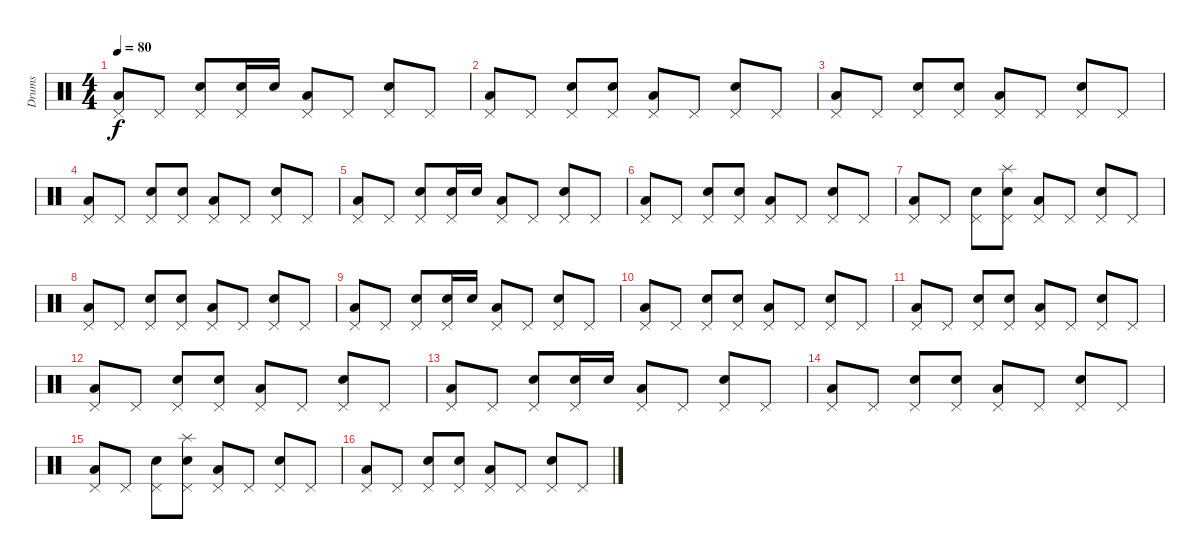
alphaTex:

\track ("Drums" "Drums") {instrument percussion}
\staff {score}
\articulation defaults
\ts (4 4)
\tempo 80
\clef neutral
\ks c
("Low Floor Tom (hit)" "Pedal Hi-Hat (hit)").8{dy f} "Pedal Hi-Hat (hit)".8 ("Electric Snare (hit)" "Pedal Hi-Hat (hit)").8 ("Electric Snare (hit)" "Pedal Hi-Hat (hit)").16 "Electric Snare (hit)".16 ("Low Floor Tom (hit)" "Pedal Hi-Hat (hit)").8 "Pedal Hi-Hat (hit)".8 ("Electric Snare (hit)" "Pedal Hi-Hat (hit)").8 "Pedal Hi-Hat (hit)".8 |
("Low Floor Tom (hit)" "Pedal Hi-Hat (hit)").8 "Pedal Hi-Hat (hit)".8 ("Electric Snare (hit)" "Pedal Hi-Hat (hit)").8 ("Electric Snare (hit)" "Pedal Hi-Hat (hit)").8 ("Low Floor Tom (hit)" "Pedal Hi-Hat (hit)").8 "Pedal Hi-Hat (hit)".8 ("Electric Snare (hit)" "Pedal Hi-Hat (hit)").8 "Pedal Hi-Hat (hit)".8 |
("Low Floor Tom (hit)" "Pedal Hi-Hat (hit)").8 "Pedal Hi-Hat (hit)".8 ("Electric Snare (hit)" "Pedal Hi-Hat (hit)").8 ("Electric Snare (hit)" "Pedal Hi-Hat (hit)").8 ("Low Floor Tom (hit)" "Pedal Hi-Hat (hit)").8 "Pedal Hi-Hat (hit)".8 ("Electric Snare (hit)" "Pedal Hi-Hat (hit)").8 "Pedal Hi-Hat (hit)".8 |
("Low Floor Tom (hit)" "Pedal Hi-Hat (hit)").8 "Pedal Hi-Hat (hit)".8 ("Electric Snare (hit)" "Pedal Hi-Hat (hit)").8 ("Electric Snare (hit)" "Pedal Hi-Hat (hit)").8 ("Low Floor Tom (hit)" "Pedal Hi-Hat (hit)").8 "Pedal Hi-Hat (hit)".8 ("Electric Snare (hit)" "Pedal Hi-Hat (hit)").8 "Pedal Hi-Hat (hit)".8 |
("Low Floor Tom (hit)" "Pedal Hi-Hat (hit)").8 "Pedal Hi-Hat (hit)".8 ("Electric Snare (hit)" "Pedal Hi-Hat (hit)").8 ("Electric Snare (hit)" "Pedal Hi-Hat (hit)").16 "Electric Snare (hit)".16 ("Low Floor Tom (hit)" "Pedal Hi-Hat (hit)").8 "Pedal Hi-Hat (hit)".8 ("Electric Snare (hit)" "Pedal Hi-Hat (hit)").8 "Pedal Hi-Hat (hit)".8 |
("Low Floor Tom (hit)" "Pedal Hi-Hat (hit)").8 "Pedal Hi-Hat (hit)".8 ("Electric Snare (hit)" "Pedal Hi-Hat (hit)").8 ("Electric Snare (hit)" "Pedal Hi-Hat (hit)").8 ("Low Floor Tom (hit)" "Pedal Hi-Hat (hit)").8 "Pedal Hi-Hat (hit)".8 ("Electric Snare (hit)" "Pedal Hi-Hat (hit)").8 "Pedal Hi-Hat (hit)".8 |
("Low Floor Tom (hit)" "Pedal Hi-Hat (hit)").8 "Pedal Hi-Hat (hit)".8 ("Electric Snare (hit)" "Pedal Hi-Hat (hit)").8 ("Electric Snare (hit)" "Pedal Hi-Hat (hit)" "Splash (hit)").8 ("Low Floor Tom (hit)" "Pedal Hi-Hat (hit)").8 "Pedal Hi-Hat (hit)".8 ("Electric Snare (hit)" "Pedal Hi-Hat (hit)").8 "Pedal Hi-Hat (hit)".8 |
("Low Floor Tom (hit)" "Pedal Hi-Hat (hit)").8 "Pedal Hi-Hat (hit)".8 ("Electric Snare (hit)" "Pedal Hi-Hat (hit)").8 ("Electric Snare (hit)" "Pedal Hi-Hat (hit)").8 ("Low Floor Tom (hit)" "Pedal Hi-Hat (hit)").8 "Pedal Hi-Hat (hit)".8 ("Electric Snare (hit)" "Pedal Hi-Hat (hit)").8 "Pedal Hi-Hat (hit)".8 |
("Low Floor Tom (hit)" "Pedal Hi-Hat (hit)").8 "Pedal Hi-Hat (hit)".8 ("Electric Snare (hit)" "Pedal Hi-Hat (hit)").8 ("Electric Snare (hit)" "Pedal Hi-Hat (hit)").16 "Electric Snare (hit)".16 ("Low Floor Tom (hit)" "Pedal Hi-Hat (hit)").8 "Pedal Hi-Hat (hit)".8 ("Electric Snare (hit)" "Pedal Hi-Hat (hit)").8 "Pedal Hi-Hat (hit)".8 |
("Low Floor Tom (hit)" "Pedal Hi-Hat (hit)").8 "Pedal Hi-Hat (hit)".8 ("Electric Snare (hit)" "Pedal Hi-Hat (hit)").8 ("Electric Snare (hit)" "Pedal Hi-Hat (hit)").8 ("Low Floor Tom (hit)" "Pedal Hi-Hat (hit)").8 "Pedal Hi-Hat (hit)".8 ("Electric Snare (hit)" "Pedal Hi-Hat (hit)").8 "Pedal Hi-Hat (hit)".8 |
("Low Floor Tom (hit)" "Pedal Hi-Hat (hit)").8 "Pedal Hi-Hat (hit)".8 ("Electric Snare (hit)" "Pedal Hi-Hat (hit)").8 ("Electric Snare (hit)" "Pedal Hi-Hat (hit)").8 ("Low Floor Tom (hit)" "Pedal Hi-Hat (hit)").8 "Pedal Hi-Hat (hit)".8 ("Electric Snare (hit)" "Pedal Hi-Hat (hit)").8 "Pedal Hi-Hat (hit)".8 |
("Low Floor Tom (hit)" "Pedal Hi-Hat (hit)").8 "Pedal Hi-Hat (hit)".8 ("Electric Snare (hit)" "Pedal Hi-Hat (hit)").8 ("Electric Snare (hit)" "Pedal Hi-Hat (hit)").8 ("Low Floor Tom (hit)" "Pedal Hi-Hat (hit)").8 "Pedal Hi-Hat (hit)".8 ("Electric Snare (hit)" "Pedal Hi-Hat (hit)").8 "Pedal Hi-Hat (hit)".8 |
("Low Floor Tom (hit)" "Pedal Hi-Hat (hit)").8 "Pedal Hi-Hat (hit)".8 ("Electric Snare (hit)" "Pedal Hi-Hat (hit)").8 ("Electric Snare (hit)" "Pedal Hi-Hat (hit)").16 "Electric Snare (hit)".16 ("Low Floor Tom (hit)" "Pedal Hi-Hat (hit)").8 "Pedal Hi-Hat (hit)".8 ("Electric Snare (hit)" "Pedal Hi-Hat (hit)").8 "Pedal Hi-Hat (hit)".8 |
("Low Floor Tom (hit)" "Pedal Hi-Hat (hit)").8 "Pedal Hi-Hat (hit)".8 ("Electric Snare (hit)" "Pedal Hi-Hat (hit)").8 ("Electric Snare (hit)" "Pedal Hi-Hat (hit)").8 ("Low Floor Tom (hit)" "Pedal Hi-Hat (hit)").8 "Pedal Hi-Hat (hit)".8 ("Electric Snare (hit)" "Pedal Hi-Hat (hit)").8 "Pedal Hi-Hat (hit)".8 |
("Low Floor Tom (hit)" "Pedal Hi-Hat (hit)").8 "Pedal Hi-Hat (hit)".8 ("Electric Snare (hit)" "Pedal Hi-Hat (hit)").8 ("Electric Snare (hit)" "Pedal Hi-Hat (hit)" "Splash (hit)").8 ("Low Floor Tom (hit)" "Pedal Hi-Hat (hit)").8 "Pedal Hi-Hat (hit)".8 ("Electric Snare (hit)" "Pedal Hi-Hat (hit)").8 "Pedal Hi-Hat (hit)".8 |
("Low Floor Tom (hit)" "Pedal Hi-Hat (hit)").8 "Pedal Hi-Hat (hit)".8 ("Electric Snare (hit)" "Pedal Hi-Hat (hit)").8 ("Electric Snare (hit)" "Pedal Hi-Hat (hit)").8 ("Low Floor Tom (hit)" "Pedal Hi-Hat (hit)").8 "Pedal Hi-Hat (hit)".8 ("Electric Snare (hit)" "Pedal Hi-Hat (hit)").8 "Pedal Hi-Hat (hit)".8
